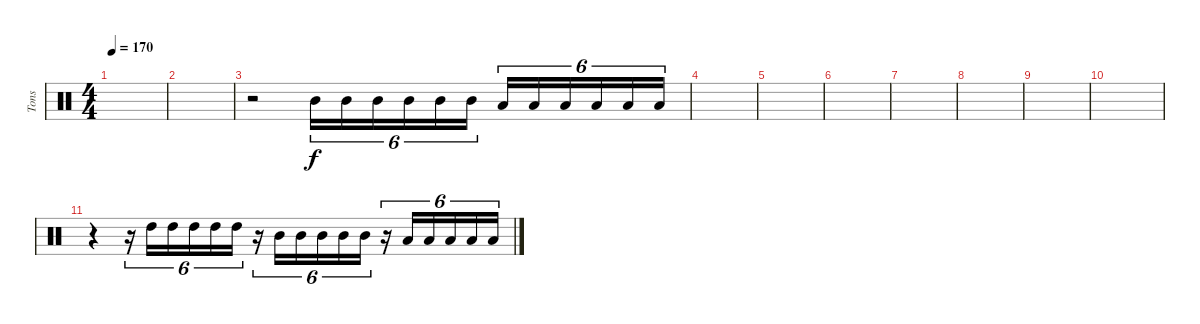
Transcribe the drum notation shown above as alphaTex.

\track ("Tons" "Tons") {instrument percussion}
\staff {score}
\articulation defaults
\ts (4 4)
\tempo 170
\clef neutral
\ks c
|
|
r.2 "Mid Tom (hit)".16{tu (6 4)} "Mid Tom (hit)".16{tu (6 4)} "Mid Tom (hit)".16{tu (6 4)} "Mid Tom (hit)".16{tu (6 4)} "Mid Tom (hit)".16{tu (6 4)} "Mid Tom (hit)".16{tu (6 4)} "Low Tom (hit)".16{tu (6 4)} "Low Tom (hit)".16{tu (6 4)} "Low Tom (hit)".16{tu (6 4)} "Low Tom (hit)".16{tu (6 4)} "Low Tom (hit)".16{tu (6 4)} "Low Tom (hit)".16{tu (6 4)} |
|
|
|
|
|
|
|
r.4 r.16{tu (6 4)} "High Tom (hit)".16{tu (6 4)} "High Tom (hit)".16{tu (6 4)} "High Tom (hit)".16{tu (6 4)} "High Tom (hit)".16{tu (6 4)} "High Tom (hit)".16{tu (6 4)} r.16{tu (6 4)} "Mid Tom (hit)".16{tu (6 4)} "Mid Tom (hit)".16{tu (6 4)} "Mid Tom (hit)".16{tu (6 4)} "Mid Tom (hit)".16{tu (6 4)} "Mid Tom (hit)".16{tu (6 4)} r.16{tu (6 4)} "Low Tom (hit)".16{tu (6 4)} "Low Tom (hit)".16{tu (6 4)} "Low Tom (hit)".16{tu (6 4)} "Low Tom (hit)".16{tu (6 4)} "Low Tom (hit)".16{tu (6 4)}
